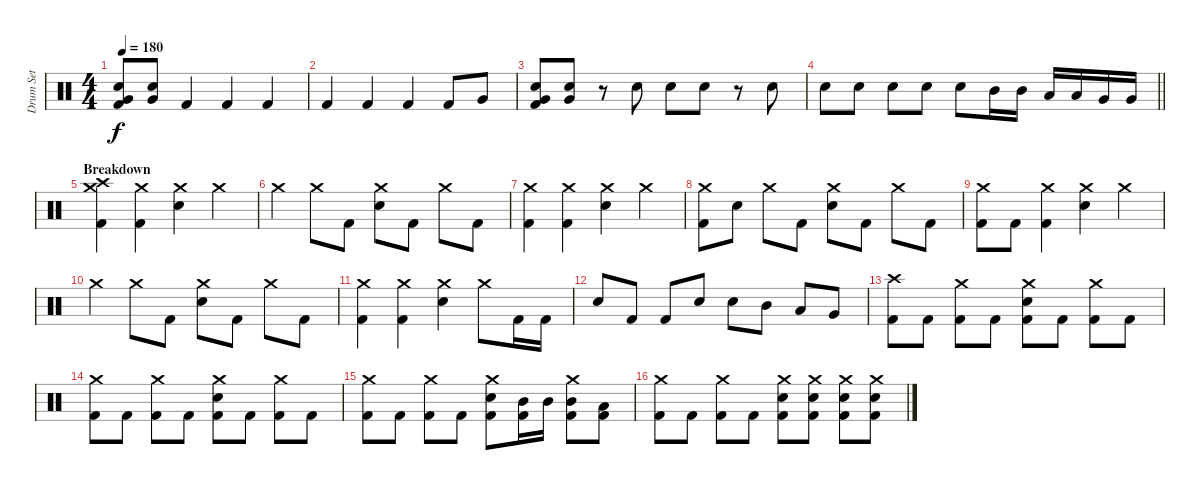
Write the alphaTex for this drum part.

\track ("Drum Set" "Drum Set") {instrument percussion}
\staff {score}
\articulation defaults
\ts (4 4)
\tempo 180
\clef neutral
\ks c
("Snare (hit) 2" "Very Low Tom (hit)" "Kick (hit) 2").8{dy f} ("Snare (hit) 2" "Very Low Tom (hit)").8 "Kick (hit) 2".4 "Kick (hit) 2".4 "Kick (hit) 2".4 |
"Kick (hit) 2".4 "Kick (hit) 2".4 "Kick (hit) 2".4 "Kick (hit) 2".8 "Very Low Tom (hit)".8 |
("Snare (hit) 2" "Very Low Tom (hit)" "Kick (hit) 2").8 ("Snare (hit) 2" "Very Low Tom (hit)").8 r.8 "Snare (hit) 2".8 "Snare (hit) 2".8 "Snare (hit) 2".8 r.8 "Snare (hit) 2".8 |
\barLineRight lightlight "Snare (hit) 2".8 "Snare (hit) 2".8 "Snare (hit) 2".8 "Snare (hit) 2".8 "Snare (hit) 2".8 "Mid Tom (hit)".16 "Mid Tom (hit)".16 "Low Tom (hit)".16 "Low Tom (hit)".16 "Very Low Tom (hit)".16 "Very Low Tom (hit)".16
|
\section ("" "Breakdown")
("Crash high (hit)" "Crash medium (hit)" "Kick (hit) 2").4 ("Crash medium (hit)" "Kick (hit) 2").4 ("Crash medium (hit)" "Snare (hit) 2").4 "Crash medium (hit)".4 |
"Crash medium (hit)".4 "Crash medium (hit)".8 "Kick (hit) 2".8 ("Crash medium (hit)" "Snare (hit) 2").8 "Kick (hit) 2".8 "Crash medium (hit)".8 "Kick (hit) 2".8 |
("Crash medium (hit)" "Kick (hit) 2").4 ("Crash medium (hit)" "Kick (hit) 2").4 ("Crash medium (hit)" "Snare (hit) 2").4 "Crash medium (hit)".4 |
("Crash medium (hit)" "Kick (hit) 2").8 "Snare (hit) 2".8 "Crash medium (hit)".8 "Kick (hit) 2".8 ("Crash medium (hit)" "Snare (hit) 2").8 "Kick (hit) 2".8 "Crash medium (hit)".8 "Kick (hit) 2".8 |
("Crash medium (hit)" "Kick (hit) 2").8 "Kick (hit) 2".8 ("Crash medium (hit)" "Kick (hit) 2").4 ("Crash medium (hit)" "Snare (hit) 2").4 "Crash medium (hit)".4 |
"Crash medium (hit)".4 "Crash medium (hit)".8 "Kick (hit) 2".8 ("Crash medium (hit)" "Snare (hit) 2").8 "Kick (hit) 2".8 "Crash medium (hit)".8 "Kick (hit) 2".8 |
("Crash medium (hit)" "Kick (hit) 2").4 ("Crash medium (hit)" "Kick (hit) 2").4 ("Crash medium (hit)" "Snare (hit) 2").4 "Crash medium (hit)".8 "Kick (hit) 2".16 "Kick (hit) 2".16 |
"Snare (hit) 2".8 "Kick (hit) 2".8 "Kick (hit) 2".8 "Snare (hit) 2".8 "Snare (hit) 2".8 "Mid Tom (hit)".8 "Low Tom (hit)".8 "Very Low Tom (hit)".8 |
("Crash high (hit)" "Kick (hit) 2").8 "Kick (hit) 2".8 ("Crash medium (hit)" "Kick (hit) 2").8 "Kick (hit) 2".8 ("Crash medium (hit)" "Snare (hit) 2" "Kick (hit) 2").8 "Kick (hit) 2".8 ("Crash medium (hit)" "Kick (hit) 2").8 "Kick (hit) 2".8 |
("Crash medium (hit)" "Kick (hit) 2").8 "Kick (hit) 2".8 ("Crash medium (hit)" "Kick (hit) 2").8 "Kick (hit) 2".8 ("Crash medium (hit)" "Snare (hit) 2" "Kick (hit) 2").8 "Kick (hit) 2".8 ("Crash medium (hit)" "Kick (hit) 2").8 "Kick (hit) 2".8 |
("Crash medium (hit)" "Kick (hit) 2").8 "Kick (hit) 2".8 ("Crash medium (hit)" "Kick (hit) 2").8 "Kick (hit) 2".8 ("Crash medium (hit)" "Snare (hit) 2" "Kick (hit) 2").8 ("Mid Tom (hit)" "Kick (hit) 2").16 "Mid Tom (hit)".16 ("Crash medium (hit)" "Mid Tom (hit)" "Kick (hit) 2").8 ("Low Tom (hit)" "Kick (hit) 2").8 |
("Crash medium (hit)" "Kick (hit) 2").8 "Kick (hit) 2".8 ("Crash medium (hit)" "Kick (hit) 2").8 "Kick (hit) 2".8 ("Crash medium (hit)" "Snare (hit) 2" "Kick (hit) 2").8 ("Crash medium (hit)" "Snare (hit) 2" "Kick (hit) 2").8 ("Crash medium (hit)" "Snare (hit) 2" "Kick (hit) 2").8 ("Crash medium (hit)" "Snare (hit) 2" "Kick (hit) 2").8
